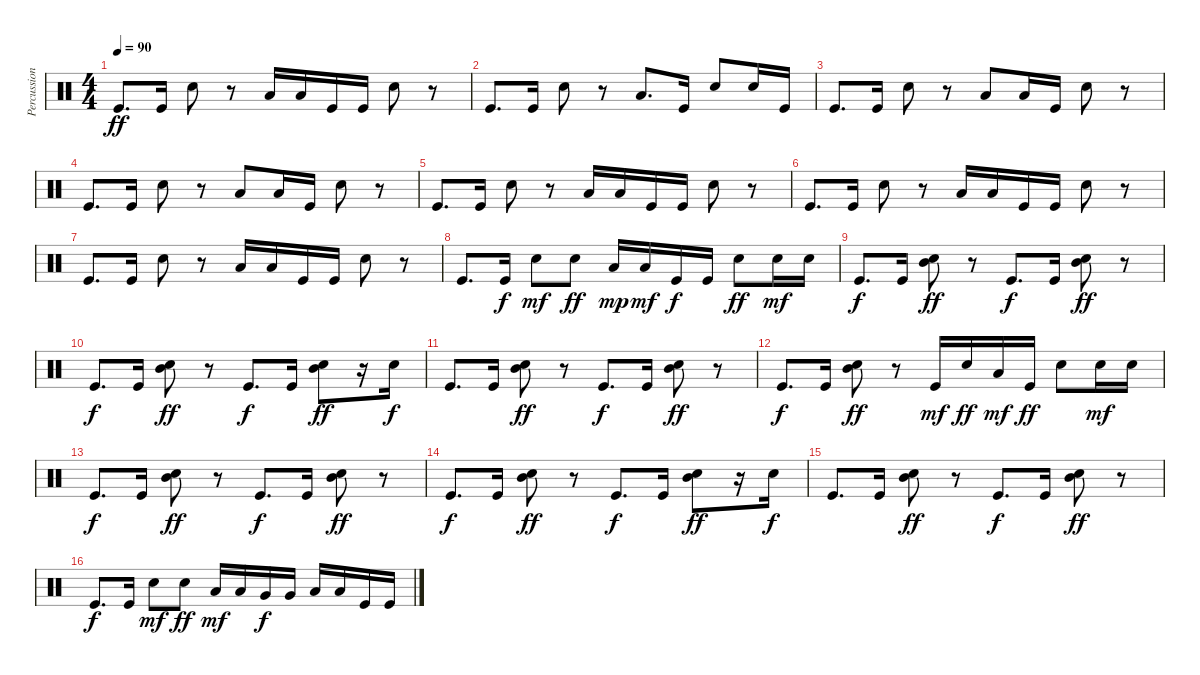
\track ("Percussion" "Percussion") {instrument percussion}
\staff {score}
\articulation defaults
\ts (4 4)
\tempo 90
\clef neutral
\ks c "Kick (hit)".8{d dy ff} "Kick (hit)".16 "Snare (hit) 2".8
r.8 "Low Floor Tom (hit)".16 "Low Floor Tom (hit)".16 "Kick (hit)".16 "Kick (hit)".16 "Snare (hit) 2".8 r.8 |
"Kick (hit)".8{d} "Kick (hit)".16 "Snare (hit) 2".8 r.8 "Low Floor Tom (hit)".8{d} "Kick (hit)".16 "Snare (hit) 2".8 "Snare (hit) 2".16 "Kick (hit)".16 |
"Kick (hit)".8{d} "Kick (hit)".16 "Snare (hit) 2".8 r.8 "Low Floor Tom (hit)".8 "Low Floor Tom (hit)".16 "Kick (hit)".16 "Snare (hit) 2".8 r.8 |
"Kick (hit)".8{d} "Kick (hit)".16 "Snare (hit) 2".8 r.8 "Low Floor Tom (hit)".8 "Low Floor Tom (hit)".16 "Kick (hit)".16 "Snare (hit) 2".8 r.8 |
"Kick (hit)".8{d} "Kick (hit)".16 "Snare (hit) 2".8 r.8 "Low Floor Tom (hit)".16 "Low Floor Tom (hit)".16 "Kick (hit)".16 "Kick (hit)".16 "Snare (hit) 2".8 r.8 |
"Kick (hit)".8{d} "Kick (hit)".16 "Snare (hit) 2".8 r.8 "Low Floor Tom (hit)".16 "Low Floor Tom (hit)".16 "Kick (hit)".16 "Kick (hit)".16 "Snare (hit) 2".8 r.8 |
"Kick (hit)".8{d} "Kick (hit)".16 "Snare (hit) 2".8 r.8 "Low Floor Tom (hit)".16 "Low Floor Tom (hit)".16 "Kick (hit)".16 "Kick (hit)".16 "Snare (hit) 2".8 r.8 |
"Kick (hit)".8{d} "Kick (hit)".16{dy f} "Snare (hit) 2".8{dy mf} "Snare (hit) 2".8{dy ff} "Low Floor Tom (hit)".16{dy mp} "Low Floor Tom (hit)".16{dy mf} "Kick (hit)".16{dy f} "Kick (hit)".16 "Snare (hit) 2".8{dy ff} "Snare (hit) 2".16{dy mf} "Snare (hit) 2".16 |
"Kick (hit)".8{d dy f} "Kick (hit)".16 ("Mid Tom (hit)" "Snare (hit) 2").8{dy ff} r.8 "Kick (hit)".8{d dy f} "Kick (hit)".16 ("Mid Tom (hit)" "Snare (hit) 2").8{dy ff} r.8 |
"Kick (hit)".8{d dy f} "Kick (hit)".16 ("Mid Tom (hit)" "Snare (hit) 2").8{dy ff} r.8 "Kick (hit)".8{d dy f} "Kick (hit)".16 ("Mid Tom (hit)" "Snare (hit) 2").8{dy ff} r.16 "Snare (hit) 2".16{dy f} |
"Kick (hit)".8{d} "Kick (hit)".16 ("Mid Tom (hit)" "Snare (hit) 2").8{dy ff} r.8 "Kick (hit)".8{d dy f} "Kick (hit)".16 ("Mid Tom (hit)" "Snare (hit) 2").8{dy ff} r.8 |
"Kick (hit)".8{d dy f} "Kick (hit)".16 ("Mid Tom (hit)" "Snare (hit) 2").8{dy ff} r.8 "Kick (hit)".16{dy mf} "Snare (hit) 2".16{dy ff} "Low Floor Tom (hit)".16{dy mf} "Kick (hit)".16{dy ff} "Snare (hit) 2".8 "Snare (hit) 2".16{dy mf} "Snare (hit) 2".16 |
"Kick (hit)".8{d dy f} "Kick (hit)".16 ("Mid Tom (hit)" "Snare (hit) 2").8{dy ff} r.8 "Kick (hit)".8{d dy f} "Kick (hit)".16 ("Mid Tom (hit)" "Snare (hit) 2").8{dy ff} r.8 |
"Kick (hit)".8{d dy f} "Kick (hit)".16 ("Mid Tom (hit)" "Snare (hit) 2").8{dy ff} r.8 "Kick (hit)".8{d dy f} "Kick (hit)".16 ("Mid Tom (hit)" "Snare (hit) 2").8{dy ff} r.16 "Snare (hit) 2".16{dy f} |
"Kick (hit)".8{d} "Kick (hit)".16 ("Mid Tom (hit)" "Snare (hit) 2").8{dy ff} r.8 "Kick (hit)".8{d dy f} "Kick (hit)".16 ("Mid Tom (hit)" "Snare (hit) 2").8{dy ff} r.8 |
"Kick (hit)".8{d dy f} "Kick (hit)".16 "Snare (hit) 2".8{dy mf} "Snare (hit) 2".8{dy ff} "Low Tom (hit)".16{dy mf} "Low Tom (hit)".16 "Very Low Tom (hit)".16{dy f} "Very Low Tom (hit)".16 "Low Floor Tom (hit)".16 "Low Floor Tom (hit)".16 "Kick (hit)".16 "Kick (hit)".16
